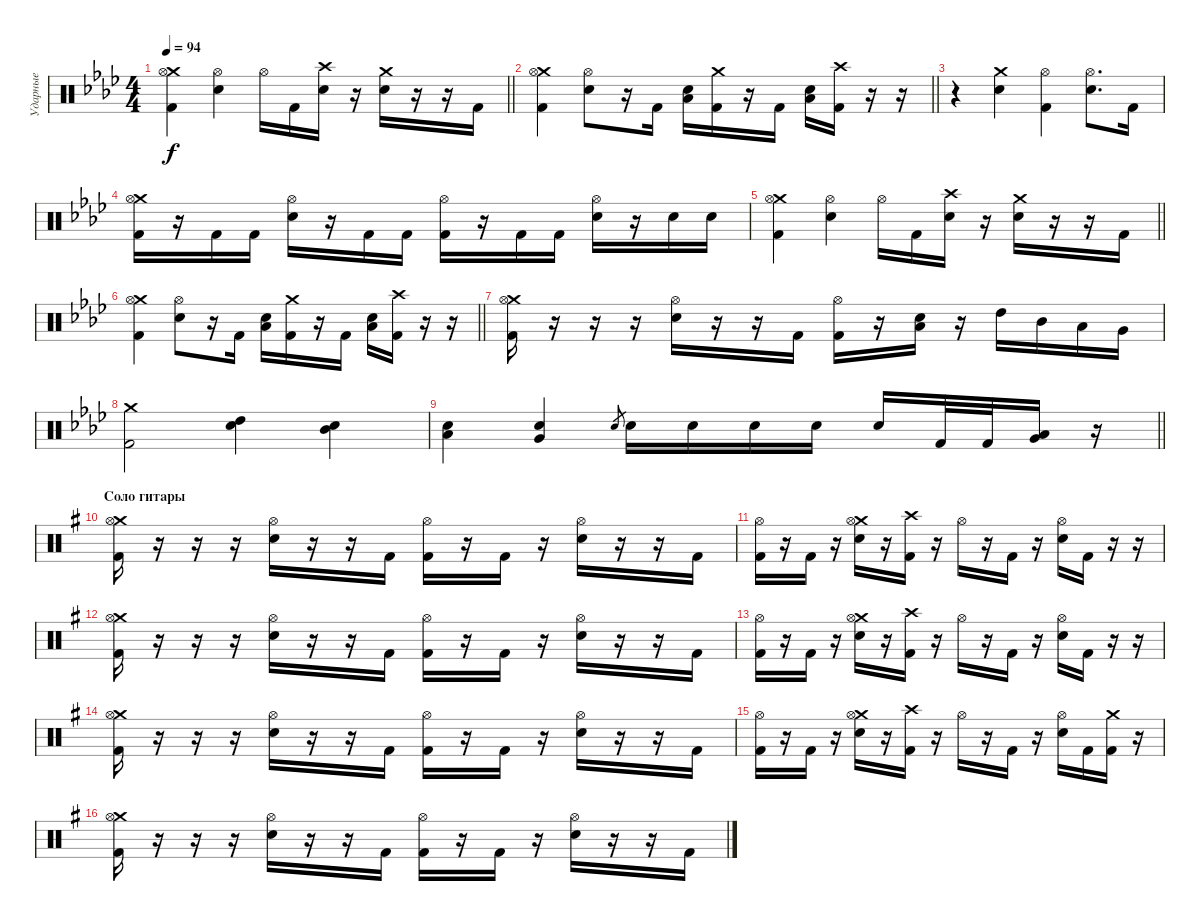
\track ("Ударные" "Ударные") {instrument percussion}
\staff {score}
\articulation defaults
\ts (4 4)
\section ("" "")
\tempo 94
\clef neutral
\barLineRight lightlight
\ks fminor
("Crash medium (hit)" "Kick (hit) 2" "Hi-Hat (open)").4{dy f} ("Electric Snare (hit)" "Hi-Hat (open)").4 "Hi-Hat (open)".16 "Kick (hit) 2".16 ("Crash high (hit)" "Electric Snare (hit)").16 r.16 ("Crash medium (hit)" "Electric Snare (hit)").16 r.16 r.16 "Kick (hit) 2".16 |
\barLineRight lightlight
("Crash medium (hit)" "Kick (hit) 2" "Hi-Hat (open)").4 ("Electric Snare (hit)" "Hi-Hat (open)").8 r.16 "Kick (hit) 2".16 ("Electric Snare (hit)" "Low Tom (hit)").16 ("Crash medium (hit)" "Kick (hit) 2").16 r.16 "Kick (hit) 2".16 ("Electric Snare (hit)" "Low Tom (hit)").16 ("Crash high (hit)" "Kick (hit) 2").16 r.16 r.16 |
r.4 ("Crash medium (hit)" "Electric Snare (hit)").4 ("Kick (hit) 2" "Hi-Hat (open)").4 ("Electric Snare (hit)" "Hi-Hat (open)").8{d} "Kick (hit) 2".16 |
("Crash medium (hit)" "Kick (hit) 2" "Hi-Hat (open)").16 r.16 "Kick (hit) 2".16 "Kick (hit) 2".16 ("Electric Snare (hit)" "Hi-Hat (open)").16 r.16 "Kick (hit) 2".16 "Kick (hit) 2".16 ("Kick (hit) 2" "Hi-Hat (open)").16 r.16 "Kick (hit) 2".16 "Kick (hit) 2".16 ("Electric Snare (hit)" "Hi-Hat (open)").16 r.16 "Electric Snare (hit)".16 "Electric Snare (hit)".16 |
\barLineRight lightlight
("Crash medium (hit)" "Kick (hit) 2" "Hi-Hat (open)").4 ("Electric Snare (hit)" "Hi-Hat (open)").4 "Hi-Hat (open)".16 "Kick (hit) 2".16 ("Crash high (hit)" "Electric Snare (hit)").16 r.16 ("Crash medium (hit)" "Electric Snare (hit)").16 r.16 r.16 "Kick (hit) 2".16 |
\barLineRight lightlight
("Crash medium (hit)" "Kick (hit) 2" "Hi-Hat (open)").4 ("Electric Snare (hit)" "Hi-Hat (open)").8 r.16 "Kick (hit) 2".16 ("Electric Snare (hit)" "Low Tom (hit)").16 ("Crash medium (hit)" "Kick (hit) 2").16 r.16 "Kick (hit) 2".16 ("Electric Snare (hit)" "Low Tom (hit)").16 ("Crash high (hit)" "Kick (hit) 2").16 r.16 r.16 |
("Crash medium (hit)" "Kick (hit) 2" "Hi-Hat (open)").16 r.16 r.16 r.16 ("Electric Snare (hit)" "Hi-Hat (open)").16 r.16 r.16 "Kick (hit) 2".16 ("Kick (hit) 2" "Hi-Hat (open)").16 r.16 ("Electric Snare (hit)" "Low Tom (hit)").16 r.16 "High Tom (hit)".16 "Mid Tom (hit)".16 "Low Tom (hit)".16 "Very Low Tom (hit)".16 |
("Crash medium (hit)" "Kick (hit) 2").2 ("Electric Snare (hit)" "High Tom (hit)").4 ("Electric Snare (hit)" "Mid Tom (hit)").4 |
\barLineRight lightlight
("Electric Snare (hit)" "Low Tom (hit)").4 ("Electric Snare (hit)" "Very Low Tom (hit)").4 "Electric Snare (hit)".8{gr} "Electric Snare (hit)".16 "Electric Snare (hit)".16 "Electric Snare (hit)".16 "Electric Snare (hit)".16 "Electric Snare (hit)".16 "Kick (hit) 2".32 "Kick (hit) 2".32 ("Low Floor Tom (hit)" "Very Low Tom (hit)").16 r.16 |
\section ("" "Соло гитары")
\ks eminor
("Crash medium (hit)" "Kick (hit) 2" "Hi-Hat (open)").16 r.16 r.16 r.16 ("Electric Snare (hit)" "Hi-Hat (open)").16 r.16 r.16 "Kick (hit) 2".16 ("Kick (hit) 2" "Hi-Hat (open)").16 r.16 "Kick (hit) 2".16 r.16 ("Electric Snare (hit)" "Hi-Hat (open)").16 r.16 r.16 "Kick (hit) 2".16 |
("Kick (hit) 2" "Hi-Hat (open)").16 r.16 "Kick (hit) 2".16 r.16 ("Crash medium (hit)" "Electric Snare (hit)" "Hi-Hat (open)").16 r.16 ("Crash high (hit)" "Kick (hit) 2").16 r.16 "Hi-Hat (open)".16 r.16 "Kick (hit) 2".16 r.16 ("Electric Snare (hit)" "Hi-Hat (open)").16 "Kick (hit) 2".16 r.16 r.16 |
("Crash medium (hit)" "Kick (hit) 2" "Hi-Hat (open)").16 r.16 r.16 r.16 ("Electric Snare (hit)" "Hi-Hat (open)").16 r.16 r.16 "Kick (hit) 2".16 ("Kick (hit) 2" "Hi-Hat (open)").16 r.16 "Kick (hit) 2".16 r.16 ("Electric Snare (hit)" "Hi-Hat (open)").16 r.16 r.16 "Kick (hit) 2".16 |
("Kick (hit) 2" "Hi-Hat (open)").16 r.16 "Kick (hit) 2".16 r.16 ("Crash medium (hit)" "Electric Snare (hit)" "Hi-Hat (open)").16 r.16 ("Crash high (hit)" "Kick (hit) 2").16 r.16 "Hi-Hat (open)".16 r.16 "Kick (hit) 2".16 r.16 ("Electric Snare (hit)" "Hi-Hat (open)").16 "Kick (hit) 2".16 r.16 r.16 |
("Crash medium (hit)" "Kick (hit) 2" "Hi-Hat (open)").16 r.16 r.16 r.16 ("Electric Snare (hit)" "Hi-Hat (open)").16 r.16 r.16 "Kick (hit) 2".16 ("Kick (hit) 2" "Hi-Hat (open)").16 r.16 "Kick (hit) 2".16 r.16 ("Electric Snare (hit)" "Hi-Hat (open)").16 r.16 r.16 "Kick (hit) 2".16 |
("Kick (hit) 2" "Hi-Hat (open)").16 r.16 "Kick (hit) 2".16 r.16 ("Crash medium (hit)" "Electric Snare (hit)" "Hi-Hat (open)").16 r.16 ("Crash high (hit)" "Kick (hit) 2").16 r.16 "Hi-Hat (open)".16 r.16 "Kick (hit) 2".16 r.16 ("Electric Snare (hit)" "Hi-Hat (open)").16 "Kick (hit) 2".16 ("Crash medium (hit)" "Kick (hit) 2").16 r.16 |
("Crash medium (hit)" "Kick (hit) 2" "Hi-Hat (open)").16 r.16 r.16 r.16 ("Electric Snare (hit)" "Hi-Hat (open)").16 r.16 r.16 "Kick (hit) 2".16 ("Kick (hit) 2" "Hi-Hat (open)").16 r.16 "Kick (hit) 2".16 r.16 ("Electric Snare (hit)" "Hi-Hat (open)").16 r.16 r.16 "Kick (hit) 2".16
